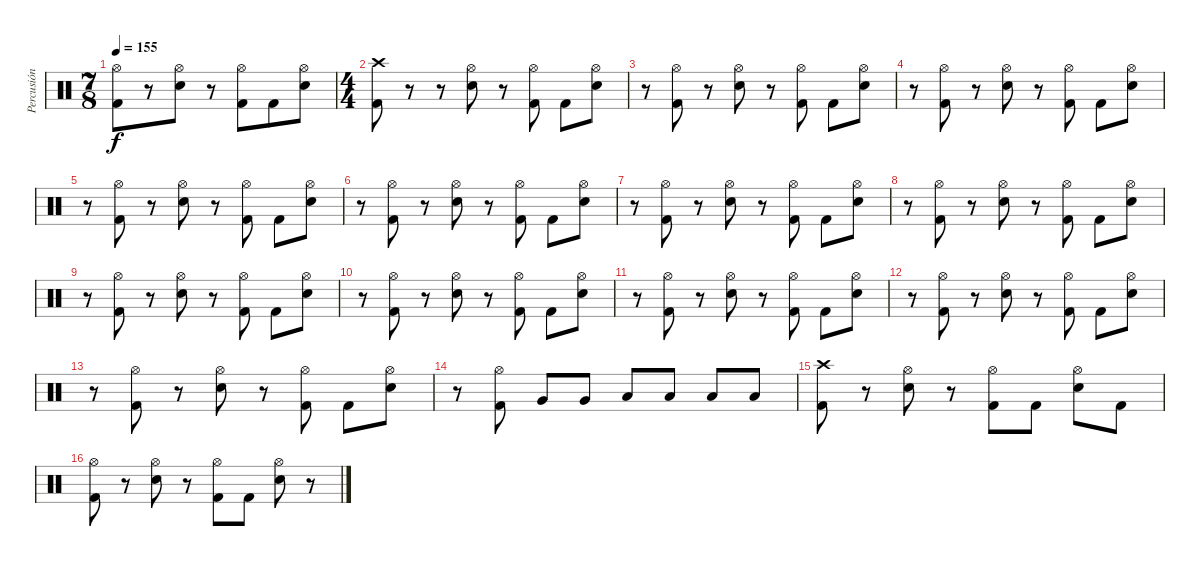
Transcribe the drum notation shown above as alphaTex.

\track ("Percusión" "Percusión") {instrument percussion}
\staff {score}
\articulation defaults
\ts (7 8)
\tempo 155
\clef neutral
\ks c
("Hi-Hat (open)" "Kick (hit) 2").8{dy f} r.8 ("Hi-Hat (open)" "Electric Snare (hit)").8 r.8 ("Hi-Hat (open)" "Kick (hit) 2").8 "Kick (hit) 2".8 ("Hi-Hat (open)" "Electric Snare (hit)").8 |
\ts (4 4)
("Crash high (hit)" "Kick (hit) 2").8 r.8 r.8 ("Hi-Hat (open)" "Electric Snare (hit)").8 r.8 ("Hi-Hat (open)" "Kick (hit) 2").8 "Kick (hit) 2".8 ("Hi-Hat (open)" "Electric Snare (hit)").8 |
r.8 ("Hi-Hat (open)" "Kick (hit) 2").8 r.8 ("Hi-Hat (open)" "Electric Snare (hit)").8 r.8 ("Hi-Hat (open)" "Kick (hit) 2").8 "Kick (hit) 2".8 ("Hi-Hat (open)" "Electric Snare (hit)").8 |
r.8 ("Hi-Hat (open)" "Kick (hit) 2").8 r.8 ("Hi-Hat (open)" "Electric Snare (hit)").8 r.8 ("Hi-Hat (open)" "Kick (hit) 2").8 "Kick (hit) 2".8 ("Hi-Hat (open)" "Electric Snare (hit)").8 |
r.8 ("Hi-Hat (open)" "Kick (hit) 2").8 r.8 ("Hi-Hat (open)" "Electric Snare (hit)").8 r.8 ("Hi-Hat (open)" "Kick (hit) 2").8 "Kick (hit) 2".8 ("Hi-Hat (open)" "Electric Snare (hit)").8 |
r.8 ("Hi-Hat (open)" "Kick (hit) 2").8 r.8 ("Hi-Hat (open)" "Electric Snare (hit)").8 r.8 ("Hi-Hat (open)" "Kick (hit) 2").8 "Kick (hit) 2".8 ("Hi-Hat (open)" "Electric Snare (hit)").8 |
r.8 ("Hi-Hat (open)" "Kick (hit) 2").8 r.8 ("Hi-Hat (open)" "Electric Snare (hit)").8 r.8 ("Hi-Hat (open)" "Kick (hit) 2").8 "Kick (hit) 2".8 ("Hi-Hat (open)" "Electric Snare (hit)").8 |
r.8 ("Hi-Hat (open)" "Kick (hit) 2").8 r.8 ("Hi-Hat (open)" "Electric Snare (hit)").8 r.8 ("Hi-Hat (open)" "Kick (hit) 2").8 "Kick (hit) 2".8 ("Hi-Hat (open)" "Electric Snare (hit)").8 |
r.8 ("Hi-Hat (open)" "Kick (hit) 2").8 r.8 ("Hi-Hat (open)" "Electric Snare (hit)").8 r.8 ("Hi-Hat (open)" "Kick (hit) 2").8 "Kick (hit) 2".8 ("Hi-Hat (open)" "Electric Snare (hit)").8 |
r.8 ("Hi-Hat (open)" "Kick (hit) 2").8 r.8 ("Hi-Hat (open)" "Electric Snare (hit)").8 r.8 ("Hi-Hat (open)" "Kick (hit) 2").8 "Kick (hit) 2".8 ("Hi-Hat (open)" "Electric Snare (hit)").8 |
r.8 ("Hi-Hat (open)" "Kick (hit) 2").8 r.8 ("Hi-Hat (open)" "Electric Snare (hit)").8 r.8 ("Hi-Hat (open)" "Kick (hit) 2").8 "Kick (hit) 2".8 ("Hi-Hat (open)" "Electric Snare (hit)").8 |
r.8 ("Hi-Hat (open)" "Kick (hit) 2").8 r.8 ("Hi-Hat (open)" "Electric Snare (hit)").8 r.8 ("Hi-Hat (open)" "Kick (hit) 2").8 "Kick (hit) 2".8 ("Hi-Hat (open)" "Electric Snare (hit)").8 |
r.8 ("Hi-Hat (open)" "Kick (hit) 2").8 r.8 ("Hi-Hat (open)" "Electric Snare (hit)").8 r.8 ("Hi-Hat (open)" "Kick (hit) 2").8 "Kick (hit) 2".8 ("Hi-Hat (open)" "Electric Snare (hit)").8 |
r.8 ("Hi-Hat (open)" "Kick (hit) 2").8 "Very Low Tom (hit)".8 "Very Low Tom (hit)".8 "Low Tom (hit)".8 "Low Tom (hit)".8 "Low Floor Tom (hit)".8 "Low Floor Tom (hit)".8 |
("Crash high (hit)" "Kick (hit) 2").8 r.8 ("Hi-Hat (open)" "Electric Snare (hit)").8 r.8 ("Hi-Hat (open)" "Kick (hit) 2").8 "Kick (hit) 2".8 ("Hi-Hat (open)" "Electric Snare (hit)").8 "Kick (hit) 2".8 |
("Hi-Hat (open)" "Kick (hit) 2").8 r.8 ("Hi-Hat (open)" "Electric Snare (hit)").8 r.8 ("Hi-Hat (open)" "Kick (hit) 2").8 "Kick (hit) 2".8 ("Hi-Hat (open)" "Electric Snare (hit)").8 r.8
